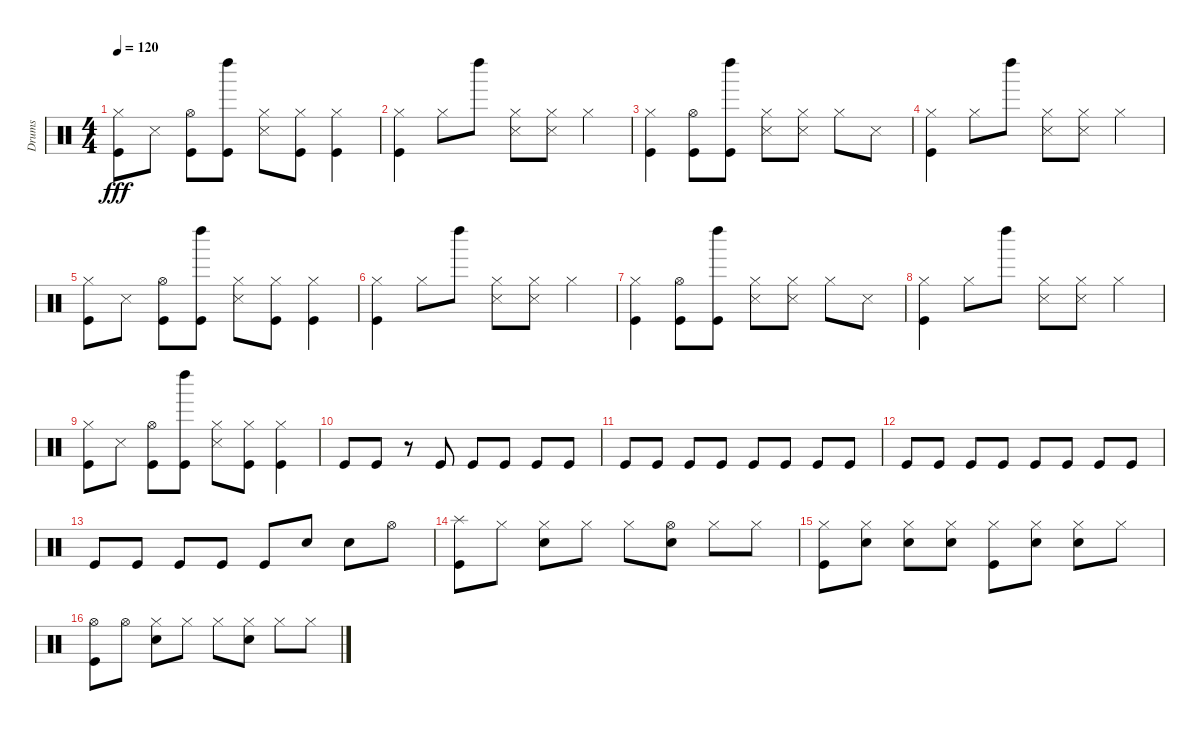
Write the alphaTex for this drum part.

\track ("Drums" "Drums") {instrument percussion}
\staff {score}
\articulation defaults
\ts (4 4)
\tempo 120
\clef neutral
\ks c
("Hi-Hat (closed)" "Kick (hit)").8{dy fff} "Snare (side stick) 3".8 ("Hi-Hat (open)" "Kick (hit)").8 ("Left Maraca (hit)" "Kick (hit)").8 ("Hi-Hat (closed)" "Snare (side stick) 3").8 ("Hi-Hat (closed)" "Kick (hit)").8 ("Hi-Hat (closed)" "Kick (hit)").4 |
("Hi-Hat (closed)" "Kick (hit)").4 "Hi-Hat (closed)".8 "Left Maraca (hit)".8 ("Hi-Hat (closed)" "Snare (side stick) 3").8 ("Hi-Hat (closed)" "Snare (side stick) 3").8 "Hi-Hat (closed)".4 |
("Hi-Hat (closed)" "Kick (hit)").4 ("Hi-Hat (open)" "Kick (hit)").8 ("Left Maraca (hit)" "Kick (hit)").8 ("Hi-Hat (closed)" "Snare (side stick) 3").8 ("Hi-Hat (closed)" "Snare (side stick) 3").8 "Hi-Hat (closed)".8 "Snare (side stick) 3".8 |
("Hi-Hat (closed)" "Kick (hit)").4 "Hi-Hat (closed)".8 "Left Maraca (hit)".8 ("Hi-Hat (closed)" "Snare (side stick) 3").8 ("Hi-Hat (closed)" "Snare (side stick) 3").8 "Hi-Hat (closed)".4 |
("Hi-Hat (closed)" "Kick (hit)").8 "Snare (side stick) 3".8 ("Hi-Hat (open)" "Kick (hit)").8 ("Left Maraca (hit)" "Kick (hit)").8 ("Hi-Hat (closed)" "Snare (side stick) 3").8 ("Hi-Hat (closed)" "Kick (hit)").8 ("Hi-Hat (closed)" "Kick (hit)").4 |
("Hi-Hat (closed)" "Kick (hit)").4 "Hi-Hat (closed)".8 "Left Maraca (hit)".8 ("Hi-Hat (closed)" "Snare (side stick) 3").8 ("Hi-Hat (closed)" "Snare (side stick) 3").8 "Hi-Hat (closed)".4 |
("Hi-Hat (closed)" "Kick (hit)").4 ("Hi-Hat (open)" "Kick (hit)").8 ("Left Maraca (hit)" "Kick (hit)").8 ("Hi-Hat (closed)" "Snare (side stick) 3").8 ("Hi-Hat (closed)" "Snare (side stick) 3").8 "Hi-Hat (closed)".8 "Snare (side stick) 3".8 |
("Hi-Hat (closed)" "Kick (hit)").4 "Hi-Hat (closed)".8 "Left Maraca (hit)".8 ("Hi-Hat (closed)" "Snare (side stick) 3").8 ("Hi-Hat (closed)" "Snare (side stick) 3").8 "Hi-Hat (closed)".4 |
("Hi-Hat (closed)" "Kick (hit)").8 "Snare (side stick) 3".8 ("Hi-Hat (open)" "Kick (hit)").8 ("Left Maraca (hit)" "Kick (hit)").8 ("Hi-Hat (closed)" "Snare (side stick) 3").8 ("Hi-Hat (closed)" "Kick (hit)").8 ("Hi-Hat (closed)" "Kick (hit)").4 |
"Kick (hit)".8 "Kick (hit)".8 r.8 "Kick (hit)".8 "Kick (hit)".8 "Kick (hit)".8 "Kick (hit)".8 "Kick (hit)".8 |
"Kick (hit)".8 "Kick (hit)".8 "Kick (hit)".8 "Kick (hit)".8 "Kick (hit)".8 "Kick (hit)".8 "Kick (hit)".8 "Kick (hit)".8 |
"Kick (hit)".8 "Kick (hit)".8 "Kick (hit)".8 "Kick (hit)".8 "Kick (hit)".8 "Kick (hit)".8 "Kick (hit)".8 "Kick (hit)".8 |
"Kick (hit)".8 "Kick (hit)".8 "Kick (hit)".8 "Kick (hit)".8 "Kick (hit)".8 "Snare (hit) 2".8 "Snare (hit) 2".8 "Hi-Hat (open)".8 |
("Splash (hit)" "Kick (hit)").8 "Hi-Hat (closed)".8 ("Hi-Hat (closed)" "Snare (hit) 2").8 "Hi-Hat (closed)".8 "Hi-Hat (closed)".8 ("Hi-Hat (open)" "Snare (hit) 2").8 "Hi-Hat (closed)".8 "Hi-Hat (closed)".8 |
("Hi-Hat (closed)" "Kick (hit)").8 ("Hi-Hat (closed)" "Snare (hit) 2").8 ("Hi-Hat (closed)" "Snare (hit) 2").8 ("Hi-Hat (closed)" "Snare (hit) 2").8 ("Hi-Hat (closed)" "Kick (hit)").8 ("Hi-Hat (closed)" "Snare (hit) 2").8 ("Hi-Hat (closed)" "Snare (hit) 2").8 "Hi-Hat (closed)".8 |
("Hi-Hat (open)" "Kick (hit)").8 "Hi-Hat (open)".8 ("Hi-Hat (closed)" "Snare (hit) 2").8 "Hi-Hat (closed)".8 "Hi-Hat (closed)".8 ("Hi-Hat (closed)" "Snare (hit) 2").8 "Hi-Hat (closed)".8 "Hi-Hat (closed)".8
